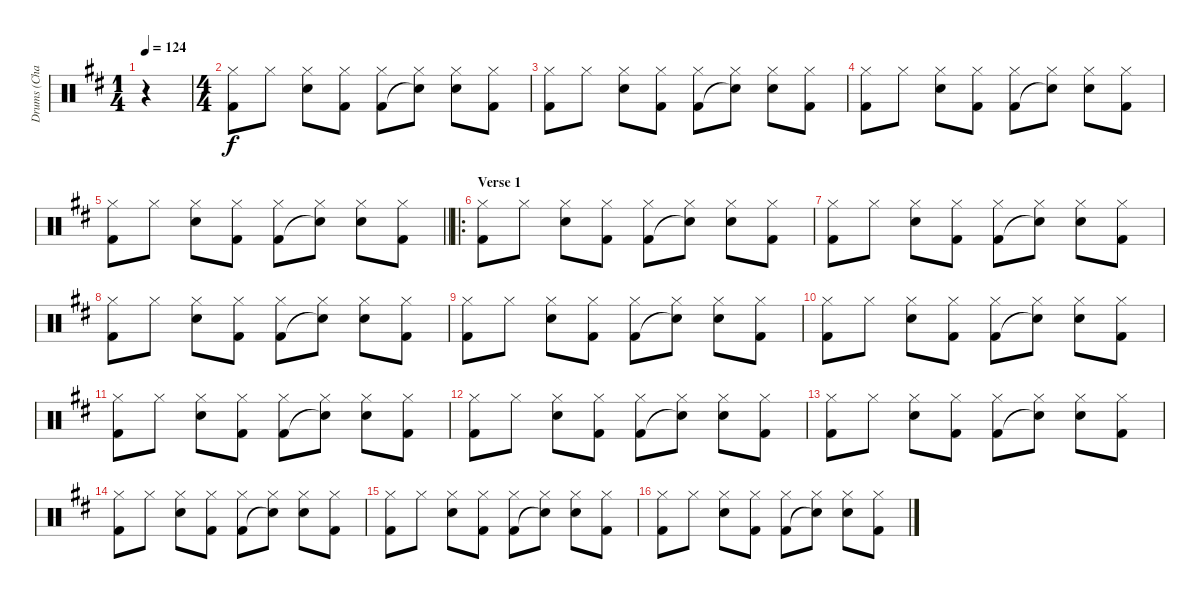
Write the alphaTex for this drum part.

\track ("Drums (Charlie)" "Drums (Cha") {instrument percussion}
\staff {score}
\articulation defaults
\ts (1 4)
\tempo 124
\clef neutral
\ks d
r.4{dy f} |
\ts (4 4)
("Hi-Hat (closed)" "Kick (hit) 2").8 "Hi-Hat (closed)".8 ("Hi-Hat (closed)" "Snare (hit) 2").8 ("Hi-Hat (closed)" "Kick (hit) 2").8 ("Hi-Hat (closed)" "Kick (hit) 2").8 ("Hi-Hat (closed)" "Snare (hit)"{t}).8 ("Hi-Hat (closed)" "Snare (hit) 2").8 ("Hi-Hat (closed)" "Kick (hit) 2").8 |
("Hi-Hat (closed)" "Kick (hit) 2").8 "Hi-Hat (closed)".8 ("Hi-Hat (closed)" "Snare (hit) 2").8 ("Hi-Hat (closed)" "Kick (hit) 2").8 ("Hi-Hat (closed)" "Kick (hit) 2").8 ("Hi-Hat (closed)" "Snare (hit)"{t}).8 ("Hi-Hat (closed)" "Snare (hit) 2").8 ("Hi-Hat (closed)" "Kick (hit) 2").8 |
("Hi-Hat (closed)" "Kick (hit) 2").8 "Hi-Hat (closed)".8 ("Hi-Hat (closed)" "Snare (hit) 2").8 ("Hi-Hat (closed)" "Kick (hit) 2").8 ("Hi-Hat (closed)" "Kick (hit) 2").8 ("Hi-Hat (closed)" "Snare (hit)"{t}).8 ("Hi-Hat (closed)" "Snare (hit) 2").8 ("Hi-Hat (closed)" "Kick (hit) 2").8 |
\barLineRight lightlight
("Hi-Hat (closed)" "Kick (hit) 2").8 "Hi-Hat (closed)".8 ("Hi-Hat (closed)" "Snare (hit) 2").8 ("Hi-Hat (closed)" "Kick (hit) 2").8 ("Hi-Hat (closed)" "Kick (hit) 2").8 ("Hi-Hat (closed)" "Snare (hit)"{t}).8 ("Hi-Hat (closed)" "Snare (hit) 2").8 ("Hi-Hat (closed)" "Kick (hit) 2").8 |
\ro
\section ("" "Verse 1")
("Hi-Hat (closed)" "Kick (hit) 2").8 "Hi-Hat (closed)".8 ("Hi-Hat (closed)" "Snare (hit) 2").8 ("Hi-Hat (closed)" "Kick (hit) 2").8 ("Hi-Hat (closed)" "Kick (hit) 2").8 ("Hi-Hat (closed)" "Snare (hit)"{t}).8 ("Hi-Hat (closed)" "Snare (hit) 2").8 ("Hi-Hat (closed)" "Kick (hit) 2").8 |
("Hi-Hat (closed)" "Kick (hit) 2").8 "Hi-Hat (closed)".8 ("Hi-Hat (closed)" "Snare (hit) 2").8 ("Hi-Hat (closed)" "Kick (hit) 2").8 ("Hi-Hat (closed)" "Kick (hit) 2").8 ("Hi-Hat (closed)" "Snare (hit)"{t}).8 ("Hi-Hat (closed)" "Snare (hit) 2").8 ("Hi-Hat (closed)" "Kick (hit) 2").8 |
("Hi-Hat (closed)" "Kick (hit) 2").8 "Hi-Hat (closed)".8 ("Hi-Hat (closed)" "Snare (hit) 2").8 ("Hi-Hat (closed)" "Kick (hit) 2").8 ("Hi-Hat (closed)" "Kick (hit) 2").8 ("Hi-Hat (closed)" "Snare (hit)"{t}).8 ("Hi-Hat (closed)" "Snare (hit) 2").8 ("Hi-Hat (closed)" "Kick (hit) 2").8 |
("Hi-Hat (closed)" "Kick (hit) 2").8 "Hi-Hat (closed)".8 ("Hi-Hat (closed)" "Snare (hit) 2").8 ("Hi-Hat (closed)" "Kick (hit) 2").8 ("Hi-Hat (closed)" "Kick (hit) 2").8 ("Hi-Hat (closed)" "Snare (hit)"{t}).8 ("Hi-Hat (closed)" "Snare (hit) 2").8 ("Hi-Hat (closed)" "Kick (hit) 2").8 |
("Hi-Hat (closed)" "Kick (hit) 2").8 "Hi-Hat (closed)".8 ("Hi-Hat (closed)" "Snare (hit) 2").8 ("Hi-Hat (closed)" "Kick (hit) 2").8 ("Hi-Hat (closed)" "Kick (hit) 2").8 ("Hi-Hat (closed)" "Snare (hit)"{t}).8 ("Hi-Hat (closed)" "Snare (hit) 2").8 ("Hi-Hat (closed)" "Kick (hit) 2").8 |
("Hi-Hat (closed)" "Kick (hit) 2").8 "Hi-Hat (closed)".8 ("Hi-Hat (closed)" "Snare (hit) 2").8 ("Hi-Hat (closed)" "Kick (hit) 2").8 ("Hi-Hat (closed)" "Kick (hit) 2").8 ("Hi-Hat (closed)" "Snare (hit)"{t}).8 ("Hi-Hat (closed)" "Snare (hit) 2").8 ("Hi-Hat (closed)" "Kick (hit) 2").8 |
("Hi-Hat (closed)" "Kick (hit) 2").8 "Hi-Hat (closed)".8 ("Hi-Hat (closed)" "Snare (hit) 2").8 ("Hi-Hat (closed)" "Kick (hit) 2").8 ("Hi-Hat (closed)" "Kick (hit) 2").8 ("Hi-Hat (closed)" "Snare (hit)"{t}).8 ("Hi-Hat (closed)" "Snare (hit) 2").8 ("Hi-Hat (closed)" "Kick (hit) 2").8 |
("Hi-Hat (closed)" "Kick (hit) 2").8 "Hi-Hat (closed)".8 ("Hi-Hat (closed)" "Snare (hit) 2").8 ("Hi-Hat (closed)" "Kick (hit) 2").8 ("Hi-Hat (closed)" "Kick (hit) 2").8 ("Hi-Hat (closed)" "Snare (hit)"{t}).8 ("Hi-Hat (closed)" "Snare (hit) 2").8 ("Hi-Hat (closed)" "Kick (hit) 2").8 |
("Hi-Hat (closed)" "Kick (hit) 2").8 "Hi-Hat (closed)".8 ("Hi-Hat (closed)" "Snare (hit) 2").8 ("Hi-Hat (closed)" "Kick (hit) 2").8 ("Hi-Hat (closed)" "Kick (hit) 2").8 ("Hi-Hat (closed)" "Snare (hit)"{t}).8 ("Hi-Hat (closed)" "Snare (hit) 2").8 ("Hi-Hat (closed)" "Kick (hit) 2").8 |
("Hi-Hat (closed)" "Kick (hit) 2").8 "Hi-Hat (closed)".8 ("Hi-Hat (closed)" "Snare (hit) 2").8 ("Hi-Hat (closed)" "Kick (hit) 2").8 ("Hi-Hat (closed)" "Kick (hit) 2").8 ("Hi-Hat (closed)" "Snare (hit)"{t}).8 ("Hi-Hat (closed)" "Snare (hit) 2").8 ("Hi-Hat (closed)" "Kick (hit) 2").8 |
("Hi-Hat (closed)" "Kick (hit) 2").8 "Hi-Hat (closed)".8 ("Hi-Hat (closed)" "Snare (hit) 2").8 ("Hi-Hat (closed)" "Kick (hit) 2").8 ("Hi-Hat (closed)" "Kick (hit) 2").8 ("Hi-Hat (closed)" "Snare (hit)"{t}).8 ("Hi-Hat (closed)" "Snare (hit) 2").8 ("Hi-Hat (closed)" "Kick (hit) 2").8
